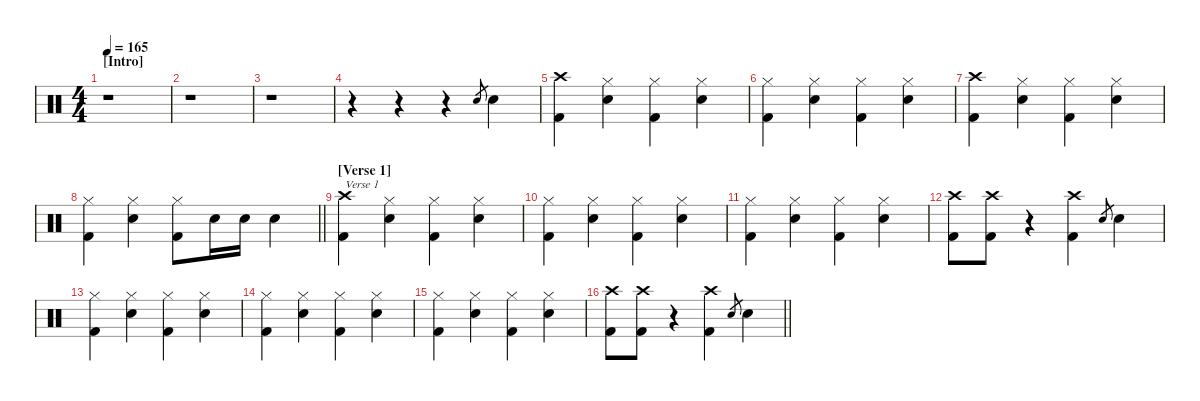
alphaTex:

\defaultSystemsLayout 4
\hideDynamics
\bracketExtendMode nobrackets
\singleTrackTrackNamePolicy hidden
\multiTrackTrackNamePolicy hidden
\firstSystemTrackNameMode fullname
\firstSystemTrackNameOrientation horizontal
\otherSystemsTrackNameOrientation horizontal
\track ("drums" "drm.") {instrument percussion}
\staff {score}
\articulation defaults
\ts (4 4)
\beaming (8 2 2 2 2)
\section ("" "[Intro]")
\tempo 165
\clef neutral
\ks c
r.1{dy mf beam Down} |
r.1{beam Down} |
r.1{beam Down} |
r.4{beam Down} r.4{beam Down} r.4{beam Down} "Snare (hit) 2".8{gr beam Up} "Snare (hit) 2".4{dy f beam Down} |
("Crash high (hit)" "Kick (hit) 2").4{dy fff beam Down} ("Hi-Hat (closed)" "Snare (hit) 2").4{dy f beam Down} ("Hi-Hat (closed)" "Kick (hit) 2").4{beam Down} ("Hi-Hat (closed)" "Snare (hit) 2").4{beam Down} |
("Hi-Hat (closed)" "Kick (hit) 2").4{beam Down} ("Hi-Hat (closed)" "Snare (hit) 2").4{beam Down} ("Hi-Hat (closed)" "Kick (hit) 2").4{beam Down} ("Hi-Hat (closed)" "Snare (hit) 2").4{beam Down} |
("Crash high (hit)" "Kick (hit) 2").4{dy fff beam Down} ("Hi-Hat (closed)" "Snare (hit) 2").4{dy f beam Down} ("Hi-Hat (closed)" "Kick (hit) 2").4{beam Down} ("Hi-Hat (closed)" "Snare (hit) 2").4{beam Down} |
\barLineRight lightlight
("Hi-Hat (closed)" "Kick (hit) 2").4{beam Down} ("Hi-Hat (closed)" "Snare (hit) 2").4{beam Down} ("Hi-Hat (closed)" "Kick (hit) 2").8{beam Down} "Snare (hit) 2".16{beam Down} "Snare (hit) 2".16{dy mf beam Down} "Snare (hit) 2".4{dy f beam Down} |
\section ("" "[Verse 1]")
("Crash high (hit)" "Kick (hit) 2").4{txt "Verse 1" dy fff beam Down} ("Hi-Hat (closed)" "Snare (hit) 2").4{dy f beam Down} ("Hi-Hat (closed)" "Kick (hit) 2").4{beam Down} ("Hi-Hat (closed)" "Snare (hit) 2").4{beam Down} |
("Hi-Hat (closed)" "Kick (hit) 2").4{beam Down} ("Hi-Hat (closed)" "Snare (hit) 2").4{beam Down} ("Hi-Hat (closed)" "Kick (hit) 2").4{beam Down} ("Hi-Hat (closed)" "Snare (hit) 2").4{beam Down} |
("Hi-Hat (closed)" "Kick (hit) 2").4{beam Down} ("Hi-Hat (closed)" "Snare (hit) 2").4{beam Down} ("Hi-Hat (closed)" "Kick (hit) 2").4{beam Down} ("Hi-Hat (closed)" "Snare (hit) 2").4{beam Down} |
("Crash high (hit)" "Kick (hit) 2").8{dy fff beam Down} ("Crash high (hit)" "Kick (hit) 2").8{beam Down} r.4{beam Down} ("Crash high (hit)" "Kick (hit) 2").4{beam Down} "Snare (hit) 2".8{gr dy mf beam Up} "Snare (hit) 2".4{dy f beam Down} |
("Hi-Hat (closed)" "Kick (hit) 2").4{beam Down} ("Hi-Hat (closed)" "Snare (hit) 2").4{beam Down} ("Hi-Hat (closed)" "Kick (hit) 2").4{beam Down} ("Hi-Hat (closed)" "Snare (hit) 2").4{beam Down} |
("Hi-Hat (closed)" "Kick (hit) 2").4{beam Down} ("Hi-Hat (closed)" "Snare (hit) 2").4{beam Down} ("Hi-Hat (closed)" "Kick (hit) 2").4{beam Down} ("Hi-Hat (closed)" "Snare (hit) 2").4{beam Down} |
("Hi-Hat (closed)" "Kick (hit) 2").4{beam Down} ("Hi-Hat (closed)" "Snare (hit) 2").4{beam Down} ("Hi-Hat (closed)" "Kick (hit) 2").4{beam Down} ("Hi-Hat (closed)" "Snare (hit) 2").4{beam Down} |
\barLineRight lightlight
("Crash high (hit)" "Kick (hit) 2").8{dy fff beam Down} ("Crash high (hit)" "Kick (hit) 2").8{beam Down} r.4{beam Down} ("Crash high (hit)" "Kick (hit) 2").4{beam Down} "Snare (hit) 2".8{gr dy mf beam Up} "Snare (hit) 2".4{dy f beam Down}
